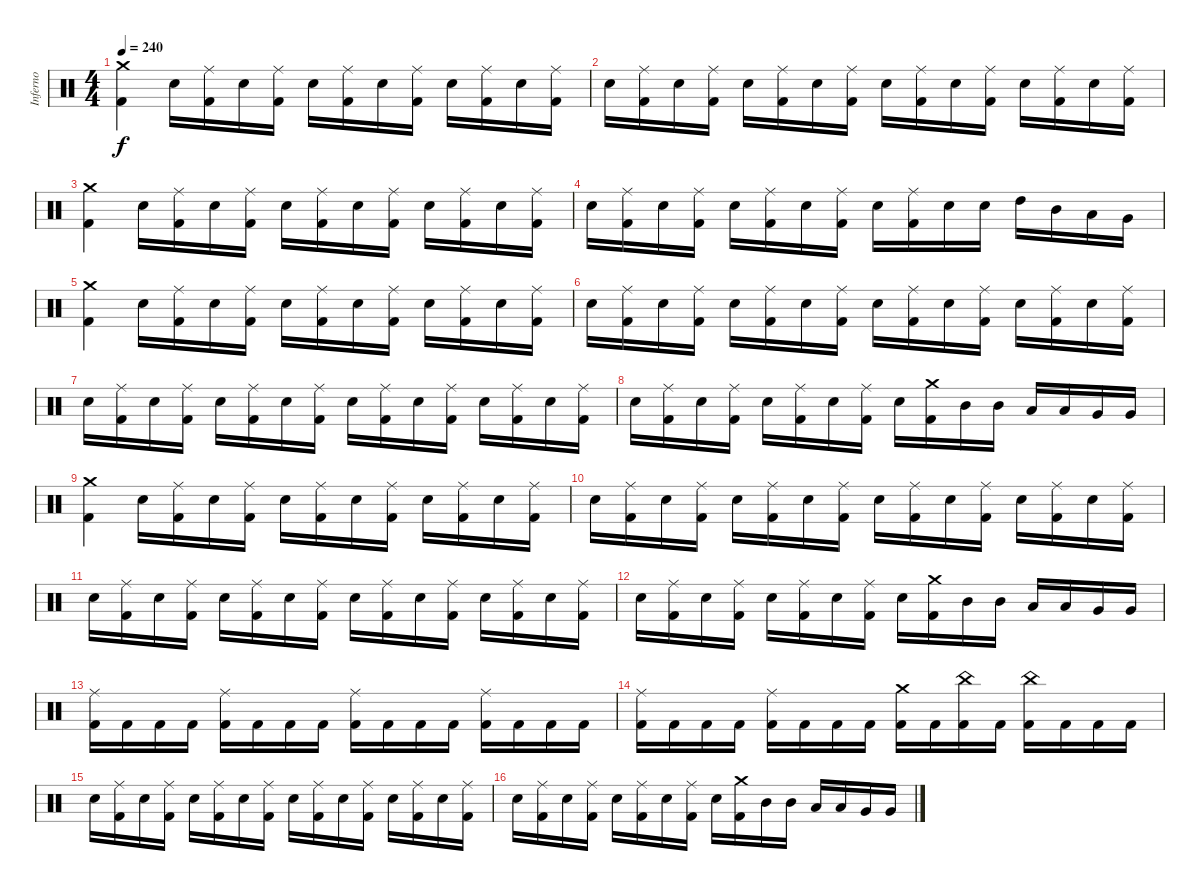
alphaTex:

\track ("Inferno" "Inferno") {instrument percussion}
\staff {score}
\articulation defaults
\ts (4 4)
\tempo 240
\clef neutral
\ks c
("Crash medium (hit)" "Kick (hit) 2").4{dy f} "Snare (hit) 2".16 ("Ride (middle)" "Kick (hit) 2").16 "Snare (hit) 2".16 ("Ride (middle)" "Kick (hit) 2").16 "Snare (hit) 2".16 ("Ride (middle)" "Kick (hit) 2").16 "Snare (hit) 2".16 ("Ride (middle)" "Kick (hit) 2").16 "Snare (hit) 2".16 ("Ride (middle)" "Kick (hit) 2").16 "Snare (hit) 2".16 ("Ride (middle)" "Kick (hit) 2").16 |
"Snare (hit) 2".16 ("Ride (middle)" "Kick (hit) 2").16 "Snare (hit) 2".16 ("Ride (middle)" "Kick (hit) 2").16 "Snare (hit) 2".16 ("Ride (middle)" "Kick (hit) 2").16 "Snare (hit) 2".16 ("Ride (middle)" "Kick (hit) 2").16 "Snare (hit) 2".16 ("Ride (middle)" "Kick (hit) 2").16 "Snare (hit) 2".16 ("Ride (middle)" "Kick (hit) 2").16 "Snare (hit) 2".16 ("Ride (middle)" "Kick (hit) 2").16 "Snare (hit) 2".16 ("Ride (middle)" "Kick (hit) 2").16 |
("Crash medium (hit)" "Kick (hit) 2").4 "Snare (hit) 2".16 ("Ride (middle)" "Kick (hit) 2").16 "Snare (hit) 2".16 ("Ride (middle)" "Kick (hit) 2").16 "Snare (hit) 2".16 ("Ride (middle)" "Kick (hit) 2").16 "Snare (hit) 2".16 ("Ride (middle)" "Kick (hit) 2").16 "Snare (hit) 2".16 ("Ride (middle)" "Kick (hit) 2").16 "Snare (hit) 2".16 ("Ride (middle)" "Kick (hit) 2").16 |
"Snare (hit) 2".16 ("Ride (middle)" "Kick (hit) 2").16 "Snare (hit) 2".16 ("Ride (middle)" "Kick (hit) 2").16 "Snare (hit) 2".16 ("Ride (middle)" "Kick (hit) 2").16 "Snare (hit) 2".16 ("Ride (middle)" "Kick (hit) 2").16 "Snare (hit) 2".16 ("Ride (middle)" "Kick (hit) 2").16 "Snare (hit) 2".16 "Snare (hit) 2".16 "High Tom (hit)".16 "Mid Tom (hit)".16 "Low Tom (hit)".16 "Very Low Tom (hit)".16 |
("Crash medium (hit)" "Kick (hit) 2").4 "Snare (hit) 2".16 ("Ride (middle)" "Kick (hit) 2").16 "Snare (hit) 2".16 ("Ride (middle)" "Kick (hit) 2").16 "Snare (hit) 2".16 ("Ride (middle)" "Kick (hit) 2").16 "Snare (hit) 2".16 ("Ride (middle)" "Kick (hit) 2").16 "Snare (hit) 2".16 ("Ride (middle)" "Kick (hit) 2").16 "Snare (hit) 2".16 ("Ride (middle)" "Kick (hit) 2").16 |
"Snare (hit) 2".16 ("Ride (middle)" "Kick (hit) 2").16 "Snare (hit) 2".16 ("Ride (middle)" "Kick (hit) 2").16 "Snare (hit) 2".16 ("Ride (middle)" "Kick (hit) 2").16 "Snare (hit) 2".16 ("Ride (middle)" "Kick (hit) 2").16 "Snare (hit) 2".16 ("Ride (middle)" "Kick (hit) 2").16 "Snare (hit) 2".16 ("Ride (middle)" "Kick (hit) 2").16 "Snare (hit) 2".16 ("Ride (middle)" "Kick (hit) 2").16 "Snare (hit) 2".16 ("Ride (middle)" "Kick (hit) 2").16 |
"Snare (hit) 2".16 ("Ride (middle)" "Kick (hit) 2").16 "Snare (hit) 2".16 ("Ride (middle)" "Kick (hit) 2").16 "Snare (hit) 2".16 ("Ride (middle)" "Kick (hit) 2").16 "Snare (hit) 2".16 ("Ride (middle)" "Kick (hit) 2").16 "Snare (hit) 2".16 ("Ride (middle)" "Kick (hit) 2").16 "Snare (hit) 2".16 ("Ride (middle)" "Kick (hit) 2").16 "Snare (hit) 2".16 ("Ride (middle)" "Kick (hit) 2").16 "Snare (hit) 2".16 ("Ride (middle)" "Kick (hit) 2").16 |
"Snare (hit) 2".16 ("Ride (middle)" "Kick (hit) 2").16 "Snare (hit) 2".16 ("Ride (middle)" "Kick (hit) 2").16 "Snare (hit) 2".16 ("Ride (middle)" "Kick (hit) 2").16 "Snare (hit) 2".16 ("Ride (middle)" "Kick (hit) 2").16 "Snare (hit) 2".16 ("Crash medium (hit)" "Kick (hit) 2").16 "Mid Tom (hit)".16 "Mid Tom (hit)".16 "Low Tom (hit)".16 "Low Tom (hit)".16 "Very Low Tom (hit)".16 "Very Low Tom (hit)".16 |
("Crash medium (hit)" "Kick (hit) 2").4 "Snare (hit) 2".16 ("Ride (middle)" "Kick (hit) 2").16 "Snare (hit) 2".16 ("Ride (middle)" "Kick (hit) 2").16 "Snare (hit) 2".16 ("Ride (middle)" "Kick (hit) 2").16 "Snare (hit) 2".16 ("Ride (middle)" "Kick (hit) 2").16 "Snare (hit) 2".16 ("Ride (middle)" "Kick (hit) 2").16 "Snare (hit) 2".16 ("Ride (middle)" "Kick (hit) 2").16 |
"Snare (hit) 2".16 ("Ride (middle)" "Kick (hit) 2").16 "Snare (hit) 2".16 ("Ride (middle)" "Kick (hit) 2").16 "Snare (hit) 2".16 ("Ride (middle)" "Kick (hit) 2").16 "Snare (hit) 2".16 ("Ride (middle)" "Kick (hit) 2").16 "Snare (hit) 2".16 ("Ride (middle)" "Kick (hit) 2").16 "Snare (hit) 2".16 ("Ride (middle)" "Kick (hit) 2").16 "Snare (hit) 2".16 ("Ride (middle)" "Kick (hit) 2").16 "Snare (hit) 2".16 ("Ride (middle)" "Kick (hit) 2").16 |
"Snare (hit) 2".16 ("Ride (middle)" "Kick (hit) 2").16 "Snare (hit) 2".16 ("Ride (middle)" "Kick (hit) 2").16 "Snare (hit) 2".16 ("Ride (middle)" "Kick (hit) 2").16 "Snare (hit) 2".16 ("Ride (middle)" "Kick (hit) 2").16 "Snare (hit) 2".16 ("Ride (middle)" "Kick (hit) 2").16 "Snare (hit) 2".16 ("Ride (middle)" "Kick (hit) 2").16 "Snare (hit) 2".16 ("Ride (middle)" "Kick (hit) 2").16 "Snare (hit) 2".16 ("Ride (middle)" "Kick (hit) 2").16 |
"Snare (hit) 2".16 ("Ride (middle)" "Kick (hit) 2").16 "Snare (hit) 2".16 ("Ride (middle)" "Kick (hit) 2").16 "Snare (hit) 2".16 ("Ride (middle)" "Kick (hit) 2").16 "Snare (hit) 2".16 ("Ride (middle)" "Kick (hit) 2").16 "Snare (hit) 2".16 ("Crash medium (hit)" "Kick (hit) 2").16 "Mid Tom (hit)".16 "Mid Tom (hit)".16 "Low Tom (hit)".16 "Low Tom (hit)".16 "Very Low Tom (hit)".16 "Very Low Tom (hit)".16 |
("Ride (middle)" "Kick (hit) 2").16 "Kick (hit) 2".16 "Kick (hit) 2".16 "Kick (hit) 2".16 ("Ride (middle)" "Kick (hit) 2").16 "Kick (hit) 2".16 "Kick (hit) 2".16 "Kick (hit) 2".16 ("Ride (middle)" "Kick (hit) 2").16 "Kick (hit) 2".16 "Kick (hit) 2".16 "Kick (hit) 2".16 ("Ride (middle)" "Kick (hit) 2").16 "Kick (hit) 2".16 "Kick (hit) 2".16 "Kick (hit) 2".16 |
("Ride (middle)" "Kick (hit) 2").16 "Kick (hit) 2".16 "Kick (hit) 2".16 "Kick (hit) 2".16 ("Ride (middle)" "Kick (hit) 2").16 "Kick (hit) 2".16 "Kick (hit) 2".16 "Kick (hit) 2".16 ("Crash medium (hit)" "Kick (hit) 2").16 "Kick (hit) 2".16 ("China (hit)" "Kick (hit) 2").16 "Kick (hit) 2".16 ("China (hit)" "Kick (hit) 2").16 "Kick (hit) 2".16 "Kick (hit) 2".16 "Kick (hit) 2".16 |
"Snare (hit) 2".16 ("Ride (middle)" "Kick (hit) 2").16 "Snare (hit) 2".16 ("Ride (middle)" "Kick (hit) 2").16 "Snare (hit) 2".16 ("Ride (middle)" "Kick (hit) 2").16 "Snare (hit) 2".16 ("Ride (middle)" "Kick (hit) 2").16 "Snare (hit) 2".16 ("Ride (middle)" "Kick (hit) 2").16 "Snare (hit) 2".16 ("Ride (middle)" "Kick (hit) 2").16 "Snare (hit) 2".16 ("Ride (middle)" "Kick (hit) 2").16 "Snare (hit) 2".16 ("Ride (middle)" "Kick (hit) 2").16 |
"Snare (hit) 2".16 ("Ride (middle)" "Kick (hit) 2").16 "Snare (hit) 2".16 ("Ride (middle)" "Kick (hit) 2").16 "Snare (hit) 2".16 ("Ride (middle)" "Kick (hit) 2").16 "Snare (hit) 2".16 ("Ride (middle)" "Kick (hit) 2").16 "Snare (hit) 2".16 ("Crash medium (hit)" "Kick (hit) 2").16 "Mid Tom (hit)".16 "Mid Tom (hit)".16 "Low Tom (hit)".16 "Low Tom (hit)".16 "Very Low Tom (hit)".16 "Very Low Tom (hit)".16
